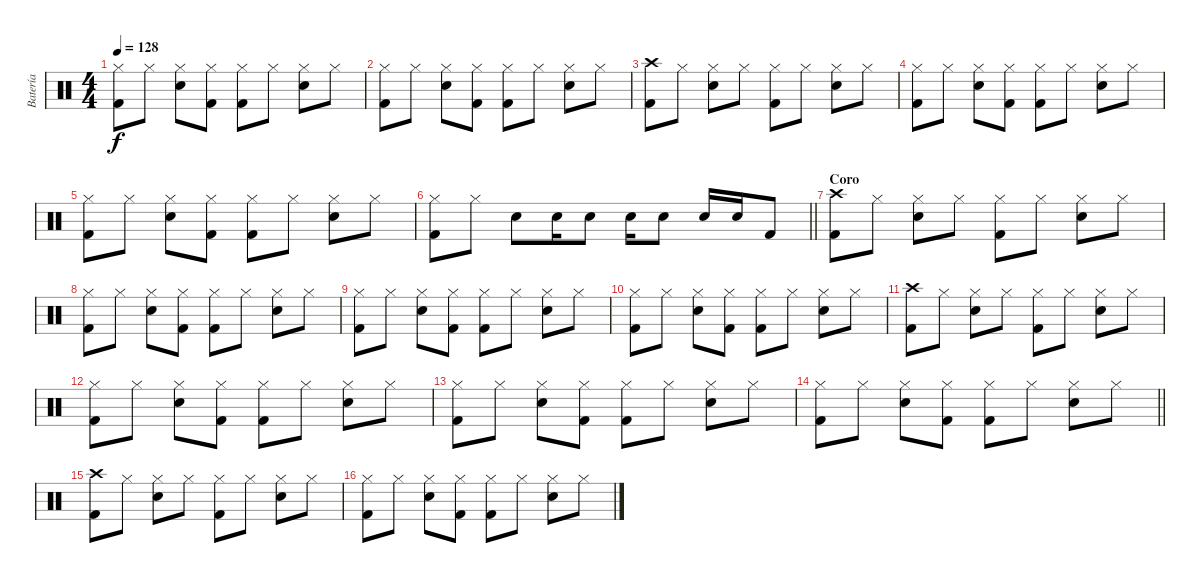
\track ("Batería" "Batería") {instrument percussion}
\staff {score}
\articulation defaults
\ts (4 4)
\tempo 128
\clef neutral
\ks c
("Hi-Hat (closed)" "Kick (hit) 2").8{dy f} "Hi-Hat (closed)".8 ("Hi-Hat (closed)" "Electric Snare (hit)").8 ("Hi-Hat (closed)" "Kick (hit) 2").8 ("Hi-Hat (closed)" "Kick (hit) 2").8 "Hi-Hat (closed)".8 ("Hi-Hat (closed)" "Electric Snare (hit)").8 "Hi-Hat (closed)".8 |
("Hi-Hat (closed)" "Kick (hit) 2").8 "Hi-Hat (closed)".8 ("Hi-Hat (closed)" "Electric Snare (hit)").8 ("Hi-Hat (closed)" "Kick (hit) 2").8 ("Hi-Hat (closed)" "Kick (hit) 2").8 "Hi-Hat (closed)".8 ("Hi-Hat (closed)" "Electric Snare (hit)").8 "Hi-Hat (closed)".8 |
("Kick (hit) 2" "Crash high (hit)").8 "Hi-Hat (closed)".8 ("Hi-Hat (closed)" "Electric Snare (hit)").8 "Hi-Hat (closed)".8 ("Hi-Hat (closed)" "Kick (hit) 2").8 "Hi-Hat (closed)".8 ("Hi-Hat (closed)" "Electric Snare (hit)").8 "Hi-Hat (closed)".8 |
("Hi-Hat (closed)" "Kick (hit) 2").8 "Hi-Hat (closed)".8 ("Hi-Hat (closed)" "Electric Snare (hit)").8 ("Hi-Hat (closed)" "Kick (hit) 2").8 ("Hi-Hat (closed)" "Kick (hit) 2").8 "Hi-Hat (closed)".8 ("Hi-Hat (closed)" "Electric Snare (hit)").8 "Hi-Hat (closed)".8 |
("Hi-Hat (closed)" "Kick (hit) 2").8 "Hi-Hat (closed)".8 ("Hi-Hat (closed)" "Electric Snare (hit)").8 ("Hi-Hat (closed)" "Kick (hit) 2").8 ("Hi-Hat (closed)" "Kick (hit) 2").8 "Hi-Hat (closed)".8 ("Hi-Hat (closed)" "Electric Snare (hit)").8 "Hi-Hat (closed)".8 |
\barLineRight lightlight
("Hi-Hat (closed)" "Kick (hit) 2").8 "Hi-Hat (closed)".8 "Electric Snare (hit)".8 "Electric Snare (hit)".16 "Electric Snare (hit)".8 "Electric Snare (hit)".16 "Electric Snare (hit)".8 "Electric Snare (hit)".16 "Electric Snare (hit)".16 "Kick (hit) 2".8 |
\section ("" "Coro")
("Kick (hit) 2" "Crash high (hit)").8 "Hi-Hat (closed)".8 ("Hi-Hat (closed)" "Electric Snare (hit)").8 "Hi-Hat (closed)".8 ("Hi-Hat (closed)" "Kick (hit) 2").8 "Hi-Hat (closed)".8 ("Hi-Hat (closed)" "Electric Snare (hit)").8 "Hi-Hat (closed)".8 |
("Hi-Hat (closed)" "Kick (hit) 2").8 "Hi-Hat (closed)".8 ("Hi-Hat (closed)" "Electric Snare (hit)").8 ("Hi-Hat (closed)" "Kick (hit) 2").8 ("Hi-Hat (closed)" "Kick (hit) 2").8 "Hi-Hat (closed)".8 ("Hi-Hat (closed)" "Electric Snare (hit)").8 "Hi-Hat (closed)".8 |
("Hi-Hat (closed)" "Kick (hit) 2").8 "Hi-Hat (closed)".8 ("Hi-Hat (closed)" "Electric Snare (hit)").8 ("Hi-Hat (closed)" "Kick (hit) 2").8 ("Hi-Hat (closed)" "Kick (hit) 2").8 "Hi-Hat (closed)".8 ("Hi-Hat (closed)" "Electric Snare (hit)").8 "Hi-Hat (closed)".8 |
("Hi-Hat (closed)" "Kick (hit) 2").8 "Hi-Hat (closed)".8 ("Hi-Hat (closed)" "Electric Snare (hit)").8 ("Hi-Hat (closed)" "Kick (hit) 2").8 ("Hi-Hat (closed)" "Kick (hit) 2").8 "Hi-Hat (closed)".8 ("Hi-Hat (closed)" "Electric Snare (hit)").8 "Hi-Hat (closed)".8 |
("Kick (hit) 2" "Crash high (hit)").8 "Hi-Hat (closed)".8 ("Hi-Hat (closed)" "Electric Snare (hit)").8 "Hi-Hat (closed)".8 ("Hi-Hat (closed)" "Kick (hit) 2").8 "Hi-Hat (closed)".8 ("Hi-Hat (closed)" "Electric Snare (hit)").8 "Hi-Hat (closed)".8 |
("Hi-Hat (closed)" "Kick (hit) 2").8 "Hi-Hat (closed)".8 ("Hi-Hat (closed)" "Electric Snare (hit)").8 ("Hi-Hat (closed)" "Kick (hit) 2").8 ("Hi-Hat (closed)" "Kick (hit) 2").8 "Hi-Hat (closed)".8 ("Hi-Hat (closed)" "Electric Snare (hit)").8 "Hi-Hat (closed)".8 |
("Hi-Hat (closed)" "Kick (hit) 2").8 "Hi-Hat (closed)".8 ("Hi-Hat (closed)" "Electric Snare (hit)").8 ("Hi-Hat (closed)" "Kick (hit) 2").8 ("Hi-Hat (closed)" "Kick (hit) 2").8 "Hi-Hat (closed)".8 ("Hi-Hat (closed)" "Electric Snare (hit)").8 "Hi-Hat (closed)".8 |
\barLineRight lightlight
("Hi-Hat (closed)" "Kick (hit) 2").8 "Hi-Hat (closed)".8 ("Hi-Hat (closed)" "Electric Snare (hit)").8 ("Hi-Hat (closed)" "Kick (hit) 2").8 ("Hi-Hat (closed)" "Kick (hit) 2").8 "Hi-Hat (closed)".8 ("Hi-Hat (closed)" "Electric Snare (hit)").8 "Hi-Hat (closed)".8 |
("Kick (hit) 2" "Crash high (hit)").8 "Hi-Hat (closed)".8 ("Hi-Hat (closed)" "Electric Snare (hit)").8 "Hi-Hat (closed)".8 ("Hi-Hat (closed)" "Kick (hit) 2").8 "Hi-Hat (closed)".8 ("Hi-Hat (closed)" "Electric Snare (hit)").8 "Hi-Hat (closed)".8 |
("Hi-Hat (closed)" "Kick (hit) 2").8 "Hi-Hat (closed)".8 ("Hi-Hat (closed)" "Electric Snare (hit)").8 ("Hi-Hat (closed)" "Kick (hit) 2").8 ("Hi-Hat (closed)" "Kick (hit) 2").8 "Hi-Hat (closed)".8 ("Hi-Hat (closed)" "Electric Snare (hit)").8 "Hi-Hat (closed)".8
